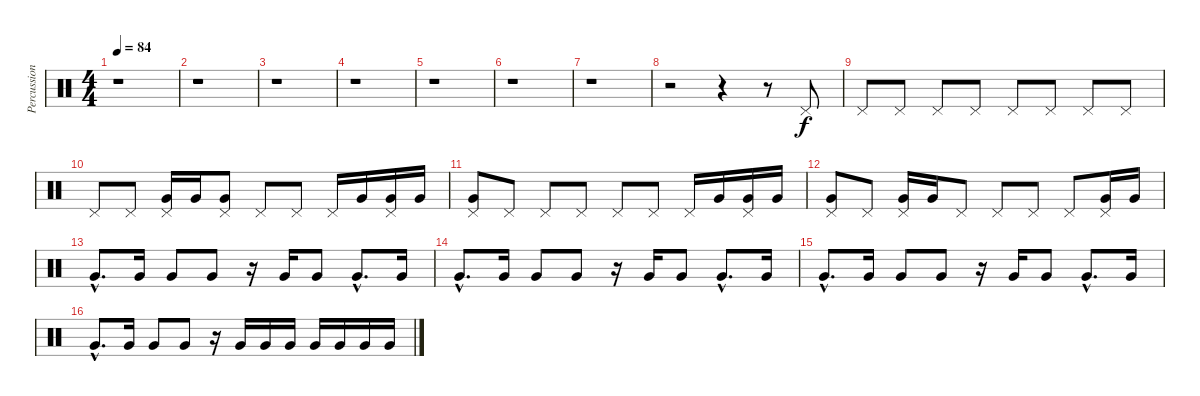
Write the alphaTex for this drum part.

\track ("Percussion" "Percussion") {instrument percussion}
\staff {score}
\articulation defaults
\ts (4 4)
\tempo 84
\clef neutral
\ks c
r.1{dy f} |
r.1 |
r.1 |
r.1 |
r.1 |
r.1 |
r.1 |
r.2 r.4 r.8 "Pedal Hi-Hat (hit)".8 |
"Pedal Hi-Hat (hit)".8 "Pedal Hi-Hat (hit)".8 "Pedal Hi-Hat (hit)".8 "Pedal Hi-Hat (hit)".8 "Pedal Hi-Hat (hit)".8 "Pedal Hi-Hat (hit)".8 "Pedal Hi-Hat (hit)".8 "Pedal Hi-Hat (hit)".8 |
"Pedal Hi-Hat (hit)".8 "Pedal Hi-Hat (hit)".8 ("Pedal Hi-Hat (hit)" "Very Low Tom (hit)").16 "Very Low Tom (hit)".16 ("Pedal Hi-Hat (hit)" "Very Low Tom (hit)").8 "Pedal Hi-Hat (hit)".8 "Pedal Hi-Hat (hit)".8 "Pedal Hi-Hat (hit)".16 "Very Low Tom (hit)".16 ("Pedal Hi-Hat (hit)" "Very Low Tom (hit)").16 "Very Low Tom (hit)".16 |
("Pedal Hi-Hat (hit)" "Very Low Tom (hit)").8 "Pedal Hi-Hat (hit)".8 "Pedal Hi-Hat (hit)".8 "Pedal Hi-Hat (hit)".8 "Pedal Hi-Hat (hit)".8 "Pedal Hi-Hat (hit)".8 "Pedal Hi-Hat (hit)".16 "Very Low Tom (hit)".16 ("Pedal Hi-Hat (hit)" "Very Low Tom (hit)").16 "Very Low Tom (hit)".16 |
("Pedal Hi-Hat (hit)" "Very Low Tom (hit)").8 "Pedal Hi-Hat (hit)".8 ("Pedal Hi-Hat (hit)" "Very Low Tom (hit)").16 "Very Low Tom (hit)".16 "Pedal Hi-Hat (hit)".8 "Pedal Hi-Hat (hit)".8 "Pedal Hi-Hat (hit)".8 "Pedal Hi-Hat (hit)".8 ("Pedal Hi-Hat (hit)" "Very Low Tom (hit)").16 "Very Low Tom (hit)".16 |
"Very Low Tom (hit)"{hac}.8{d} "Very Low Tom (hit)".16 "Very Low Tom (hit)".8 "Very Low Tom (hit)".8 r.16 "Very Low Tom (hit)".16 "Very Low Tom (hit)".8 "Very Low Tom (hit)"{hac}.8{d} "Very Low Tom (hit)".16 |
"Very Low Tom (hit)"{hac}.8{d} "Very Low Tom (hit)".16 "Very Low Tom (hit)".8 "Very Low Tom (hit)".8 r.16 "Very Low Tom (hit)".16 "Very Low Tom (hit)".8 "Very Low Tom (hit)"{hac}.8{d} "Very Low Tom (hit)".16 |
"Very Low Tom (hit)"{hac}.8{d} "Very Low Tom (hit)".16 "Very Low Tom (hit)".8 "Very Low Tom (hit)".8 r.16 "Very Low Tom (hit)".16 "Very Low Tom (hit)".8 "Very Low Tom (hit)"{hac}.8{d} "Very Low Tom (hit)".16 |
"Very Low Tom (hit)"{hac}.8{d} "Very Low Tom (hit)".16 "Very Low Tom (hit)".8 "Very Low Tom (hit)".8 r.16 "Very Low Tom (hit)".16 "Very Low Tom (hit)".16 "Very Low Tom (hit)".16 "Very Low Tom (hit)".16 "Very Low Tom (hit)".16 "Very Low Tom (hit)".16 "Very Low Tom (hit)".16
